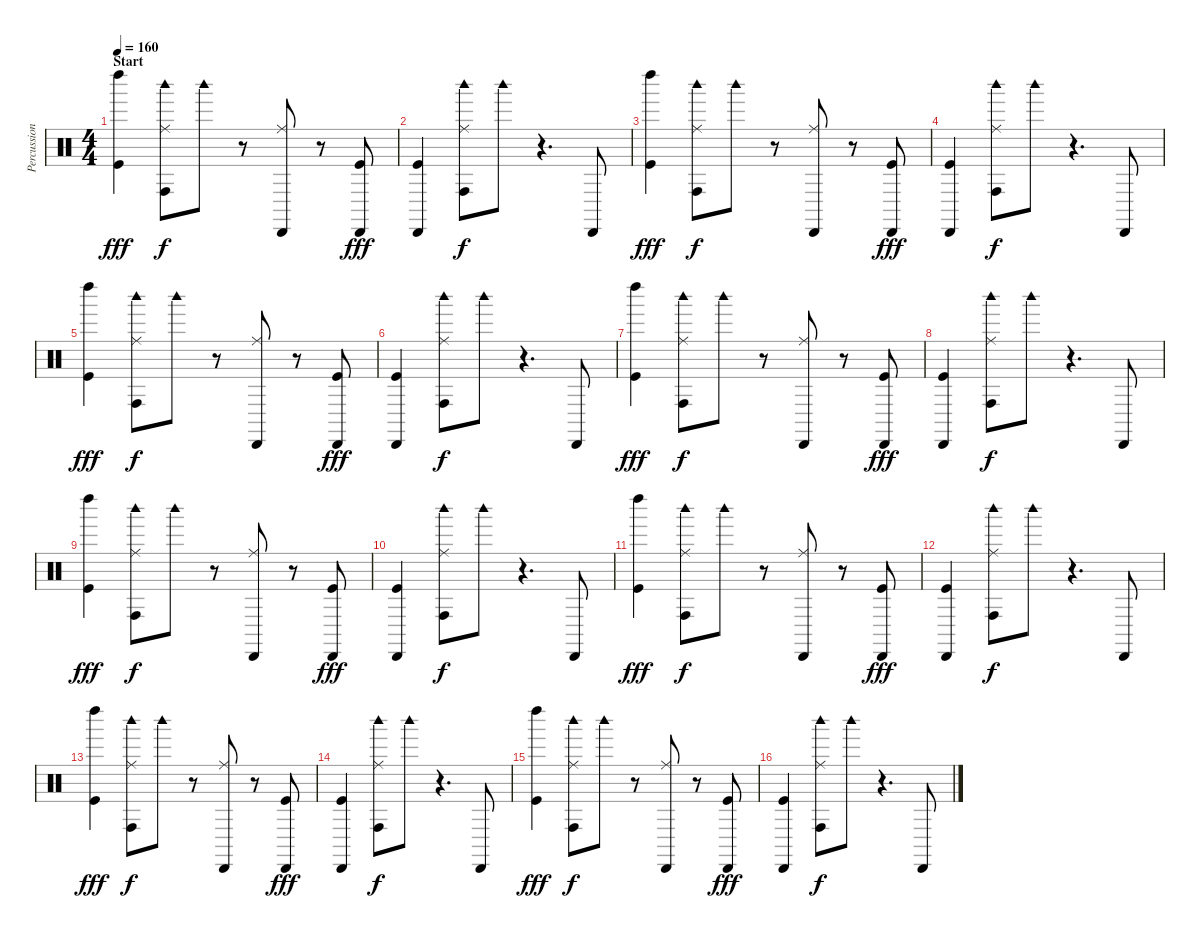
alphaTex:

\track ("Percussion" "Percussion") {instrument percussion}
\staff {score}
\articulation defaults
\ts (4 4)
\section ("" "Start")
\tempo 160
\clef neutral
\ks c
("Left Maraca (hit)" "Kick (hit)").4{dy fff} ("Conga high (hit)" "Ride (middle)" "Woodblock high (hit)").8{dy f} "Woodblock high (hit)".8 r.8 ("Cabasa (hit)" "Ride (middle)").8 r.8 ("Cabasa (hit)" "Kick (hit)").8{dy fff} |
("Cabasa (hit)" "Kick (hit)").4 ("Conga high (hit)" "Ride (middle)" "Woodblock high (hit)").8{dy f} "Woodblock high (hit)".8 r.4{d} "Cabasa (hit)".8 |
("Left Maraca (hit)" "Kick (hit)").4{dy fff} ("Conga high (hit)" "Ride (middle)" "Woodblock high (hit)").8{dy f} "Woodblock high (hit)".8 r.8 ("Cabasa (hit)" "Ride (middle)").8 r.8 ("Cabasa (hit)" "Kick (hit)").8{dy fff} |
("Cabasa (hit)" "Kick (hit)").4 ("Conga high (hit)" "Ride (middle)" "Woodblock high (hit)").8{dy f} "Woodblock high (hit)".8 r.4{d} "Cabasa (hit)".8 |
("Left Maraca (hit)" "Kick (hit)").4{dy fff} ("Conga high (hit)" "Ride (middle)" "Woodblock high (hit)").8{dy f} "Woodblock high (hit)".8 r.8 ("Cabasa (hit)" "Ride (middle)").8 r.8 ("Cabasa (hit)" "Kick (hit)").8{dy fff} |
("Cabasa (hit)" "Kick (hit)").4 ("Conga high (hit)" "Ride (middle)" "Woodblock high (hit)").8{dy f} "Woodblock high (hit)".8 r.4{d} "Cabasa (hit)".8 |
("Left Maraca (hit)" "Kick (hit)").4{dy fff} ("Conga high (hit)" "Ride (middle)" "Woodblock high (hit)").8{dy f} "Woodblock high (hit)".8 r.8 ("Cabasa (hit)" "Ride (middle)").8 r.8 ("Cabasa (hit)" "Kick (hit)").8{dy fff} |
("Cabasa (hit)" "Kick (hit)").4 ("Conga high (hit)" "Ride (middle)" "Woodblock high (hit)").8{dy f} "Woodblock high (hit)".8 r.4{d} "Cabasa (hit)".8 |
("Left Maraca (hit)" "Kick (hit)").4{dy fff} ("Conga high (hit)" "Ride (middle)" "Woodblock high (hit)").8{dy f} "Woodblock high (hit)".8 r.8 ("Cabasa (hit)" "Ride (middle)").8 r.8 ("Cabasa (hit)" "Kick (hit)").8{dy fff} |
("Cabasa (hit)" "Kick (hit)").4 ("Conga high (hit)" "Ride (middle)" "Woodblock high (hit)").8{dy f} "Woodblock high (hit)".8 r.4{d} "Cabasa (hit)".8 |
("Left Maraca (hit)" "Kick (hit)").4{dy fff} ("Conga high (hit)" "Ride (middle)" "Woodblock high (hit)").8{dy f} "Woodblock high (hit)".8 r.8 ("Cabasa (hit)" "Ride (middle)").8 r.8 ("Cabasa (hit)" "Kick (hit)").8{dy fff} |
("Cabasa (hit)" "Kick (hit)").4 ("Conga high (hit)" "Ride (middle)" "Woodblock high (hit)").8{dy f} "Woodblock high (hit)".8 r.4{d} "Cabasa (hit)".8 |
("Left Maraca (hit)" "Kick (hit)").4{dy fff} ("Conga high (hit)" "Ride (middle)" "Woodblock high (hit)").8{dy f} "Woodblock high (hit)".8 r.8 ("Cabasa (hit)" "Ride (middle)").8 r.8 ("Cabasa (hit)" "Kick (hit)").8{dy fff} |
("Cabasa (hit)" "Kick (hit)").4 ("Conga high (hit)" "Ride (middle)" "Woodblock high (hit)").8{dy f} "Woodblock high (hit)".8 r.4{d} "Cabasa (hit)".8 |
("Left Maraca (hit)" "Kick (hit)").4{dy fff} ("Conga high (hit)" "Ride (middle)" "Woodblock high (hit)").8{dy f} "Woodblock high (hit)".8 r.8 ("Cabasa (hit)" "Ride (middle)").8 r.8 ("Cabasa (hit)" "Kick (hit)").8{dy fff} |
("Cabasa (hit)" "Kick (hit)").4 ("Conga high (hit)" "Ride (middle)" "Woodblock high (hit)").8{dy f} "Woodblock high (hit)".8 r.4{d} "Cabasa (hit)".8
